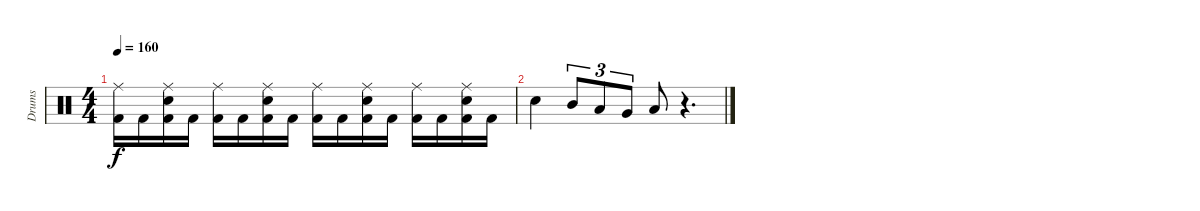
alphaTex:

\track ("Drums" "Drums") {instrument percussion}
\staff {score}
\articulation defaults
\ts (4 4)
\tempo 160
\clef neutral
\ks c
("Ride (middle)" "Kick (hit) 2").16{dy f} "Kick (hit) 2".16 ("Ride (middle)" "Electric Snare (hit)" "Kick (hit) 2").16 "Kick (hit) 2".16 ("Ride (middle)" "Kick (hit) 2").16 "Kick (hit) 2".16 ("Ride (middle)" "Electric Snare (hit)" "Kick (hit) 2").16 "Kick (hit) 2".16 ("Ride (middle)" "Kick (hit) 2").16 "Kick (hit) 2".16 ("Ride (middle)" "Electric Snare (hit)" "Kick (hit) 2").16 "Kick (hit) 2".16 ("Ride (middle)" "Kick (hit) 2").16 "Kick (hit) 2".16 ("Ride (middle)" "Electric Snare (hit)" "Kick (hit) 2").16 "Kick (hit) 2".16 |
"Electric Snare (hit)".4 "Mid Tom (hit)".8{tu (3 2)} "Low Tom (hit)".8{tu (3 2)} "Very Low Tom (hit)".8{tu (3 2)} "Low Floor Tom (hit)".8 r.4{d}
